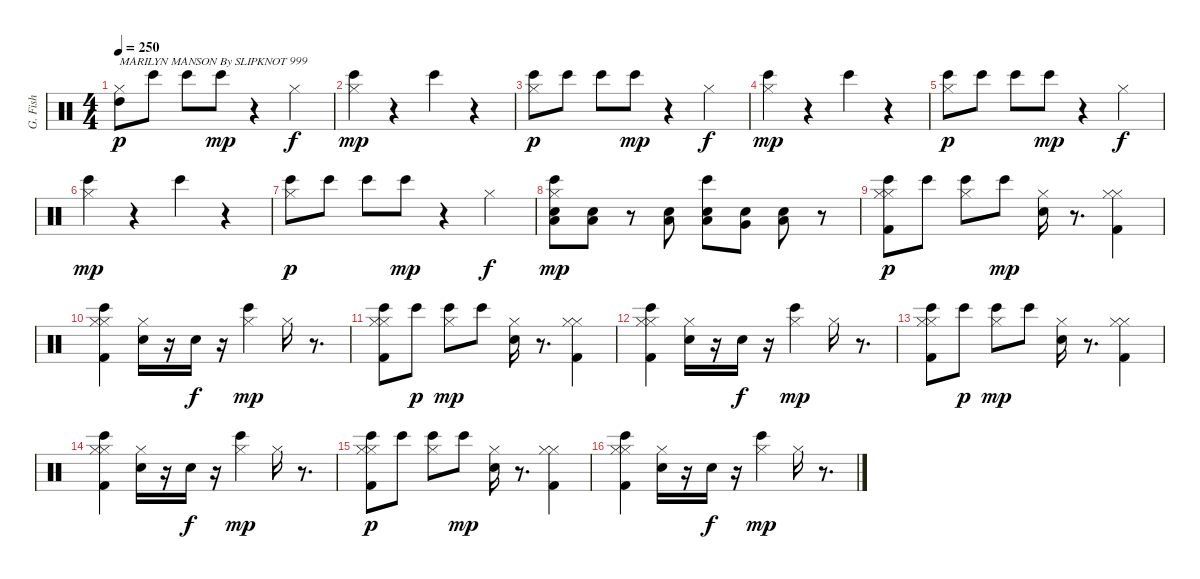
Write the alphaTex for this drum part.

\track ("G. Fish" "G. Fish") {instrument percussion}
\staff {score}
\articulation defaults
\ts (4 4)
\tempo 250
\clef neutral
\ks c
("High Tom (hit)" "Hi-Hat (closed)").8{txt "MARILYN MANSON By SLIPKNOT 999" dy p} "Bongo High (hit)".8 "Bongo High (hit)".8 "Bongo High (hit)".8{dy mp} r.4 "Hi-Hat (closed)".4{dy f} |
("Hi-Hat (closed)" "Bongo High (hit)").4{dy mp} r.4 "Bongo High (hit)".4 r.4 |
("Hi-Hat (closed)" "Bongo High (hit)").8{dy p} "Bongo High (hit)".8 "Bongo High (hit)".8 "Bongo High (hit)".8{dy mp} r.4 "Hi-Hat (closed)".4{dy f} |
("Hi-Hat (closed)" "Bongo High (hit)").4{dy mp} r.4 "Bongo High (hit)".4 r.4 |
("Bongo High (hit)" "Hi-Hat (closed)").8{dy p} "Bongo High (hit)".8 "Bongo High (hit)".8 "Bongo High (hit)".8{dy mp} r.4 "Hi-Hat (closed)".4{dy f} |
("Hi-Hat (closed)" "Bongo High (hit)").4{dy mp} r.4 "Bongo High (hit)".4 r.4 |
("Hi-Hat (closed)" "Bongo High (hit)").8{dy p} "Bongo High (hit)".8 "Bongo High (hit)".8 "Bongo High (hit)".8{dy mp} r.4 "Hi-Hat (closed)".4{dy f} |
("Hi-Hat (closed)" "Low Floor Tom (hit)" "Electric Snare (hit)" "Bongo High (hit)").8{dy mp} ("Electric Snare (hit)" "Low Floor Tom (hit)").8 r.8 ("Electric Snare (hit)" "Low Floor Tom (hit)").8 ("Electric Snare (hit)" "Low Tom (hit)" "Bongo High (hit)").8 ("Electric Snare (hit)" "Very Low Tom (hit)").8 ("Electric Snare (hit)" "Low Floor Tom (hit)").8 r.8 |
("Kick (hit) 2" "Hi-Hat (closed)" "Bongo High (hit)" "Hi-Hat (closed)").8{dy p} "Bongo High (hit)".8 ("Hi-Hat (closed)" "Bongo High (hit)").8 "Bongo High (hit)".8{dy mp} ("Electric Snare (hit)" "Hi-Hat (closed)").16 r.8{d} ("Kick (hit) 2" "Hi-Hat (closed)" "Hi-Hat (closed)").4 |
("Kick (hit) 2" "Hi-Hat (closed)" "Hi-Hat (closed)" "Bongo High (hit)").4 ("Electric Snare (hit)" "Hi-Hat (closed)").16 r.16 "Electric Snare (hit)".16{dy f} r.16 ("Hi-Hat (closed)" "Bongo High (hit)").4{dy mp} "Hi-Hat (closed)".16 r.8{d} |
("Hi-Hat (closed)" "Bongo High (hit)" "Kick (hit) 2" "Hi-Hat (closed)").8 "Bongo High (hit)".8{dy p} ("Bongo High (hit)" "Hi-Hat (closed)").8{dy mp} "Bongo High (hit)".8 ("Hi-Hat (closed)" "Electric Snare (hit)").16 r.8{d} ("Hi-Hat (closed)" "Kick (hit) 2" "Hi-Hat (closed)").4 |
("Hi-Hat (closed)" "Kick (hit) 2" "Hi-Hat (closed)" "Bongo High (hit)").4 ("Electric Snare (hit)" "Hi-Hat (closed)").16 r.16 "Electric Snare (hit)".16{dy f} r.16 ("Bongo High (hit)" "Hi-Hat (closed)").4{dy mp} "Hi-Hat (closed)".16 r.8{d} |
("Bongo High (hit)" "Hi-Hat (closed)" "Kick (hit) 2" "Hi-Hat (closed)").8 "Bongo High (hit)".8{dy p} ("Bongo High (hit)" "Hi-Hat (closed)").8{dy mp} "Bongo High (hit)".8 ("Hi-Hat (closed)" "Electric Snare (hit)").16 r.8{d} ("Hi-Hat (closed)" "Kick (hit) 2" "Hi-Hat (closed)").4 |
("Hi-Hat (closed)" "Bongo High (hit)" "Kick (hit) 2" "Hi-Hat (closed)").4 ("Electric Snare (hit)" "Hi-Hat (closed)").16 r.16 "Electric Snare (hit)".16{dy f} r.16 ("Bongo High (hit)" "Hi-Hat (closed)").4{dy mp} "Hi-Hat (closed)".16 r.8{d} |
("Hi-Hat (closed)" "Kick (hit) 2" "Hi-Hat (closed)" "Bongo High (hit)").8{dy p} "Bongo High (hit)".8 ("Hi-Hat (closed)" "Bongo High (hit)").8 "Bongo High (hit)".8{dy mp} ("Hi-Hat (closed)" "Electric Snare (hit)").16 r.8{d} ("Hi-Hat (closed)" "Kick (hit) 2" "Hi-Hat (closed)").4 |
("Hi-Hat (closed)" "Kick (hit) 2" "Hi-Hat (closed)" "Bongo High (hit)").4 ("Electric Snare (hit)" "Hi-Hat (closed)").16 r.16 "Electric Snare (hit)".16{dy f} r.16 ("Bongo High (hit)" "Hi-Hat (closed)").4{dy mp} "Hi-Hat (closed)".16 r.8{d}
